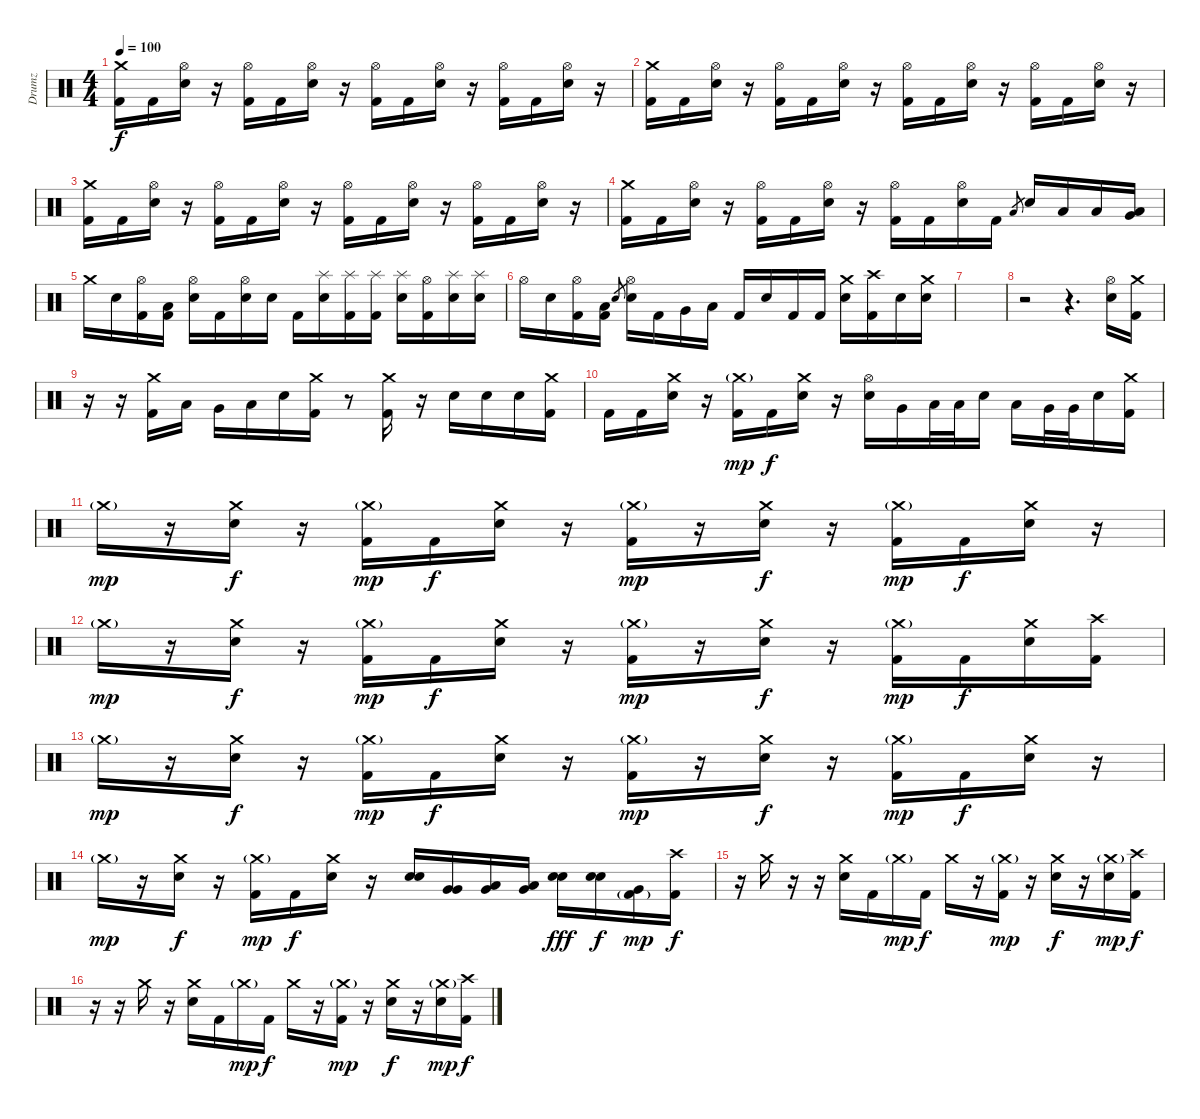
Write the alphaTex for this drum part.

\track ("Drumz" "Drumz") {instrument percussion}
\staff {score}
\articulation defaults
\ts (4 4)
\tempo 100
\clef neutral
\ks c
("Crash medium (hit)" "Kick (hit) 2").16{dy f} "Kick (hit) 2".16 ("Hi-Hat (open)" "Electric Snare (hit)").16 r.16 ("Hi-Hat (open)" "Kick (hit) 2").16 "Kick (hit) 2".16 ("Hi-Hat (open)" "Electric Snare (hit)").16 r.16 ("Hi-Hat (open)" "Kick (hit) 2").16 "Kick (hit) 2".16 ("Hi-Hat (open)" "Electric Snare (hit)").16 r.16 ("Hi-Hat (open)" "Kick (hit) 2").16 "Kick (hit) 2".16 ("Hi-Hat (open)" "Electric Snare (hit)").16 r.16 |
("Crash medium (hit)" "Kick (hit) 2").16 "Kick (hit) 2".16 ("Hi-Hat (open)" "Electric Snare (hit)").16 r.16 ("Hi-Hat (open)" "Kick (hit) 2").16 "Kick (hit) 2".16 ("Hi-Hat (open)" "Electric Snare (hit)").16 r.16 ("Hi-Hat (open)" "Kick (hit) 2").16 "Kick (hit) 2".16 ("Hi-Hat (open)" "Electric Snare (hit)").16 r.16 ("Hi-Hat (open)" "Kick (hit) 2").16 "Kick (hit) 2".16 ("Hi-Hat (open)" "Electric Snare (hit)").16 r.16 |
("Crash medium (hit)" "Kick (hit) 2").16 "Kick (hit) 2".16 ("Hi-Hat (open)" "Electric Snare (hit)").16 r.16 ("Hi-Hat (open)" "Kick (hit) 2").16 "Kick (hit) 2".16 ("Hi-Hat (open)" "Electric Snare (hit)").16 r.16 ("Hi-Hat (open)" "Kick (hit) 2").16 "Kick (hit) 2".16 ("Hi-Hat (open)" "Electric Snare (hit)").16 r.16 ("Hi-Hat (open)" "Kick (hit) 2").16 "Kick (hit) 2".16 ("Hi-Hat (open)" "Electric Snare (hit)").16 r.16 |
("Crash medium (hit)" "Kick (hit) 2").16 "Kick (hit) 2".16 ("Hi-Hat (open)" "Electric Snare (hit)").16 r.16 ("Hi-Hat (open)" "Kick (hit) 2").16 "Kick (hit) 2".16 ("Hi-Hat (open)" "Electric Snare (hit)").16 r.16 ("Hi-Hat (open)" "Kick (hit) 2").16 "Kick (hit) 2".16 ("Hi-Hat (open)" "Electric Snare (hit)").16 "Kick (hit) 2".16 "Low Floor Tom (hit)".8{gr} "Electric Snare (hit)".16 "Low Tom (hit)".16 "Low Floor Tom (hit)".16 ("Very Low Tom (hit)" "Low Floor Tom (hit)").16 |
"Crash medium (hit)".16 "Electric Snare (hit)".16 ("Hi-Hat (open)" "Kick (hit) 2").16 ("Low Floor Tom (hit)" "Kick (hit) 2").16 ("Hi-Hat (open)" "Electric Snare (hit)").16 "Kick (hit) 2".16 ("Hi-Hat (open)" "Electric Snare (hit)").16 "Electric Snare (hit)".16 "Kick (hit) 2".16 ("Splash (hit)" "Electric Snare (hit)").16 ("Splash (hit)" "Kick (hit) 2").16 ("Splash (hit)" "Kick (hit) 2").16 ("Splash (hit)" "Electric Snare (hit)").16 ("Hi-Hat (open)" "Kick (hit) 2").16 ("Splash (hit)" "Electric Snare (hit)").16 ("Splash (hit)" "Electric Snare (hit)").16 |
"Hi-Hat (open)".16 "Electric Snare (hit)".16 ("Hi-Hat (open)" "Kick (hit) 2").16 ("Low Floor Tom (hit)" "Kick (hit) 2").16 "Electric Snare (hit)".8{gr} ("Hi-Hat (open)" "Electric Snare (hit)").16 "Kick (hit) 2".16 "Very Low Tom (hit)".16 "Low Floor Tom (hit)".16 "Kick (hit) 2".16 "Electric Snare (hit)".16 "Kick (hit) 2".16 "Kick (hit) 2".16 ("Crash medium (hit)" "Electric Snare (hit)").16 ("Crash high (hit)" "Kick (hit) 2").16 "Electric Snare (hit)".16 ("Crash medium (hit)" "Electric Snare (hit)").16 |
|
r.2 r.4{d} ("Hi-Hat (open)" "Electric Snare (hit)").16 ("Crash medium (hit)" "Kick (hit) 2").16 |
r.16 r.16 ("Crash medium (hit)" "Kick (hit) 2").16 "Low Tom (hit)".16 "Very Low Tom (hit)".16 "Low Floor Tom (hit)".16 "Electric Snare (hit)".16 ("Crash medium (hit)" "Kick (hit) 2").16 r.8 ("Crash medium (hit)" "Kick (hit) 2").16 r.16 "Electric Snare (hit)".16 "Electric Snare (hit)".16 "Electric Snare (hit)".16 ("Crash medium (hit)" "Kick (hit) 2").16 |
"Kick (hit) 2".16 "Kick (hit) 2".16 ("Crash medium (hit)" "Electric Snare (hit)").16 r.16 ("Crash medium (hit)"{g} "Kick (hit) 2").16{dy mp} "Kick (hit) 2".16{dy f} ("Crash medium (hit)" "Electric Snare (hit)").16 r.16 ("Hi-Hat (open)" "Electric Snare (hit)").16 "Very Low Tom (hit)".16 "Low Floor Tom (hit)".32 "Low Floor Tom (hit)".32 "Electric Snare (hit)".16 "Low Floor Tom (hit)".16 "Very Low Tom (hit)".32 "Very Low Tom (hit)".32 "Electric Snare (hit)".16 ("Crash medium (hit)" "Kick (hit) 2").16 |
"Crash medium (hit)"{g}.16{dy mp} r.16 ("Crash medium (hit)" "Electric Snare (hit)").16{dy f} r.16 ("Crash medium (hit)"{g} "Kick (hit) 2").16{dy mp} "Kick (hit) 2".16{dy f} ("Crash medium (hit)" "Electric Snare (hit)").16 r.16 ("Crash medium (hit)"{g} "Kick (hit) 2").16{dy mp} r.16 ("Crash medium (hit)" "Electric Snare (hit)").16{dy f} r.16 ("Crash medium (hit)"{g} "Kick (hit) 2").16{dy mp} "Kick (hit) 2".16{dy f} ("Crash medium (hit)" "Electric Snare (hit)").16 r.16 |
"Crash medium (hit)"{g}.16{dy mp} r.16 ("Crash medium (hit)" "Electric Snare (hit)").16{dy f} r.16 ("Crash medium (hit)"{g} "Kick (hit) 2").16{dy mp} "Kick (hit) 2".16{dy f} ("Crash medium (hit)" "Electric Snare (hit)").16 r.16 ("Crash medium (hit)"{g} "Kick (hit) 2").16{dy mp} r.16 ("Crash medium (hit)" "Electric Snare (hit)").16{dy f} r.16 ("Crash medium (hit)"{g} "Kick (hit) 2").16{dy mp} "Kick (hit) 2".16{dy f} ("Crash medium (hit)" "Electric Snare (hit)").16 ("Crash high (hit)" "Kick (hit) 2").16 |
"Crash medium (hit)"{g}.16{dy mp} r.16 ("Crash medium (hit)" "Electric Snare (hit)").16{dy f} r.16 ("Crash medium (hit)"{g} "Kick (hit) 2").16{dy mp} "Kick (hit) 2".16{dy f} ("Crash medium (hit)" "Electric Snare (hit)").16 r.16 ("Crash medium (hit)"{g} "Kick (hit) 2").16{dy mp} r.16 ("Crash medium (hit)" "Electric Snare (hit)").16{dy f} r.16 ("Crash medium (hit)"{g} "Kick (hit) 2").16{dy mp} "Kick (hit) 2".16{dy f} ("Crash medium (hit)" "Electric Snare (hit)").16 r.16 |
"Crash medium (hit)"{g}.16{dy mp} r.16 ("Crash medium (hit)" "Electric Snare (hit)").16{dy f} r.16 ("Crash medium (hit)"{g} "Kick (hit) 2").16{dy mp} "Kick (hit) 2".16{dy f} ("Crash medium (hit)" "Electric Snare (hit)").16 r.16 ("Electric Snare (hit)" "Electric Snare (hit)").16 ("Very Low Tom (hit)" "Very Low Tom (hit)").16 ("Very Low Tom (hit)" "Low Floor Tom (hit)").16 ("Low Floor Tom (hit)" "Very Low Tom (hit)").16 ("Electric Snare (hit)" "Electric Snare (hit)").16{dy fff} ("Electric Snare (hit)" "Electric Snare (hit)").16{dy f} ("Very Low Tom (hit)" "Kick (hit) 2"{g}).16{dy mp} ("Crash high (hit)" "Kick (hit) 2").16{dy f} |
r.16 "Crash medium (hit)".16 r.16 r.16 ("Crash medium (hit)" "Electric Snare (hit)").16 "Kick (hit) 2".16 "Crash medium (hit)"{g}.16{dy mp} "Kick (hit) 2".16{dy f} "Crash medium (hit)".16 r.16 ("Crash medium (hit)"{g} "Kick (hit) 2").16{dy mp} r.16 ("Crash medium (hit)" "Electric Snare (hit)").16{dy f} r.16 ("Crash medium (hit)"{g} "Electric Snare (hit)").16{dy mp} ("Crash high (hit)" "Kick (hit) 2").16{dy f} |
r.16 r.16 "Crash medium (hit)".16 r.16 ("Crash medium (hit)" "Electric Snare (hit)").16 "Kick (hit) 2".16 "Crash medium (hit)"{g}.16{dy mp} "Kick (hit) 2".16{dy f} "Crash medium (hit)".16 r.16 ("Crash medium (hit)"{g} "Kick (hit) 2").16{dy mp} r.16 ("Crash medium (hit)" "Electric Snare (hit)").16{dy f} r.16 ("Crash medium (hit)"{g} "Electric Snare (hit)").16{dy mp} ("Crash high (hit)" "Kick (hit) 2").16{dy f}
